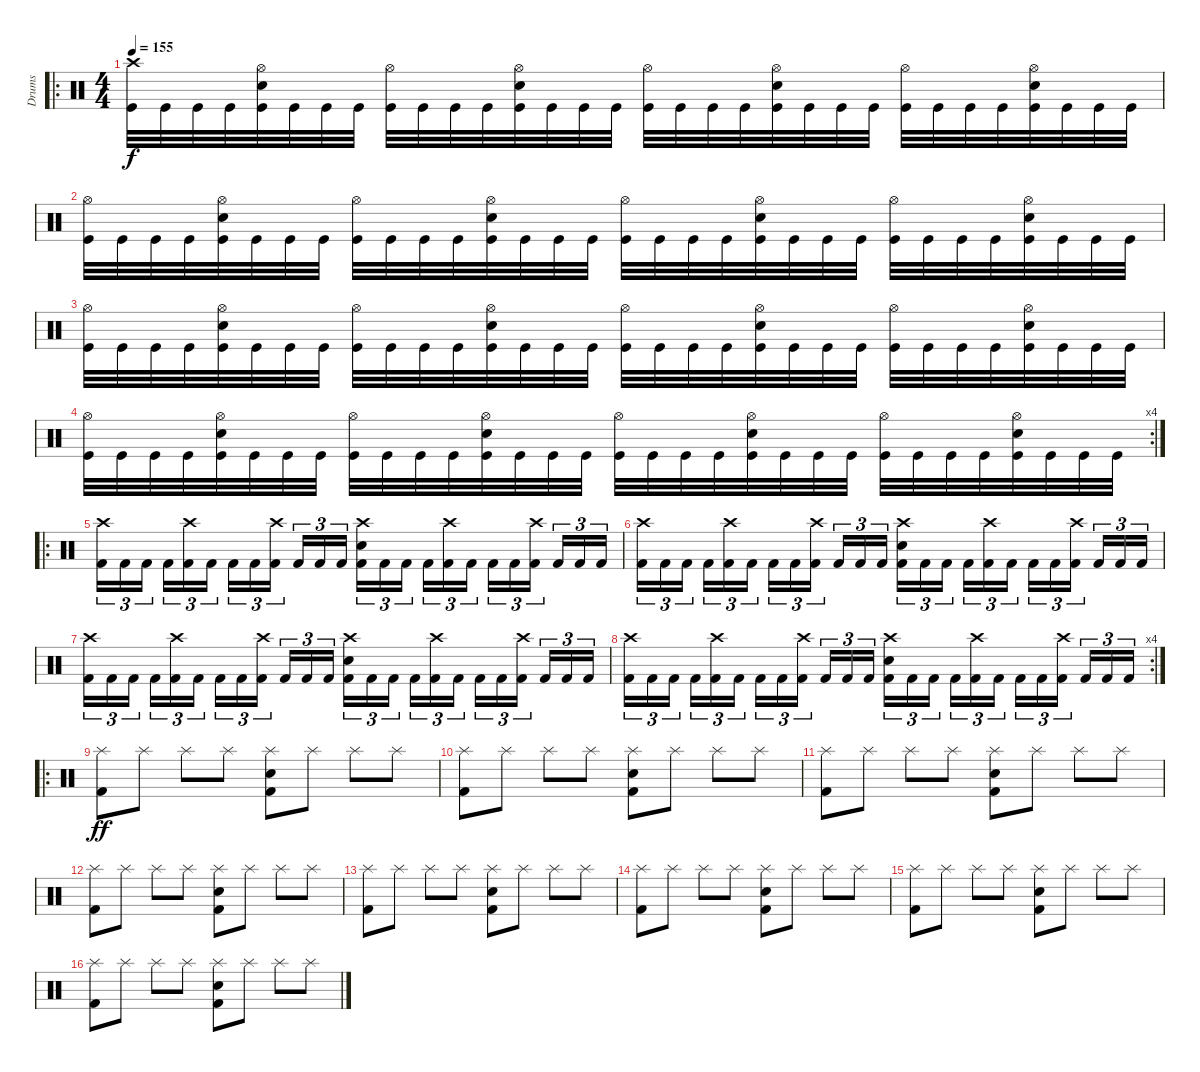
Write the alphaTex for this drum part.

\track ("Drums" "Drums") {instrument percussion}
\staff {score}
\articulation defaults
\ro
\ts (4 4)
\tempo 155
\clef neutral
\ks c
("Kick (hit)" "Crash high (hit)").32{dy f} "Kick (hit)".32 "Kick (hit)".32 "Kick (hit)".32 ("Kick (hit)" "Snare (hit) 2" "Hi-Hat (open)").32 "Kick (hit)".32 "Kick (hit)".32 "Kick (hit)".32 ("Kick (hit)" "Hi-Hat (open)").32 "Kick (hit)".32 "Kick (hit)".32 "Kick (hit)".32 ("Kick (hit)" "Snare (hit) 2" "Hi-Hat (open)").32 "Kick (hit)".32 "Kick (hit)".32 "Kick (hit)".32 ("Kick (hit)" "Hi-Hat (open)").32 "Kick (hit)".32 "Kick (hit)".32 "Kick (hit)".32 ("Kick (hit)" "Snare (hit) 2" "Hi-Hat (open)").32 "Kick (hit)".32 "Kick (hit)".32 "Kick (hit)".32 ("Kick (hit)" "Hi-Hat (open)").32 "Kick (hit)".32 "Kick (hit)".32 "Kick (hit)".32 ("Kick (hit)" "Snare (hit) 2" "Hi-Hat (open)").32 "Kick (hit)".32 "Kick (hit)".32 "Kick (hit)".32 |
("Kick (hit)" "Hi-Hat (open)").32 "Kick (hit)".32 "Kick (hit)".32 "Kick (hit)".32 ("Kick (hit)" "Snare (hit) 2" "Hi-Hat (open)").32 "Kick (hit)".32 "Kick (hit)".32 "Kick (hit)".32 ("Kick (hit)" "Hi-Hat (open)").32 "Kick (hit)".32 "Kick (hit)".32 "Kick (hit)".32 ("Kick (hit)" "Snare (hit) 2" "Hi-Hat (open)").32 "Kick (hit)".32 "Kick (hit)".32 "Kick (hit)".32 ("Kick (hit)" "Hi-Hat (open)").32 "Kick (hit)".32 "Kick (hit)".32 "Kick (hit)".32 ("Kick (hit)" "Snare (hit) 2" "Hi-Hat (open)").32 "Kick (hit)".32 "Kick (hit)".32 "Kick (hit)".32 ("Kick (hit)" "Hi-Hat (open)").32 "Kick (hit)".32 "Kick (hit)".32 "Kick (hit)".32 ("Kick (hit)" "Snare (hit) 2" "Hi-Hat (open)").32 "Kick (hit)".32 "Kick (hit)".32 "Kick (hit)".32 |
("Kick (hit)" "Hi-Hat (open)").32 "Kick (hit)".32 "Kick (hit)".32 "Kick (hit)".32 ("Kick (hit)" "Snare (hit) 2" "Hi-Hat (open)").32 "Kick (hit)".32 "Kick (hit)".32 "Kick (hit)".32 ("Kick (hit)" "Hi-Hat (open)").32 "Kick (hit)".32 "Kick (hit)".32 "Kick (hit)".32 ("Kick (hit)" "Snare (hit) 2" "Hi-Hat (open)").32 "Kick (hit)".32 "Kick (hit)".32 "Kick (hit)".32 ("Kick (hit)" "Hi-Hat (open)").32 "Kick (hit)".32 "Kick (hit)".32 "Kick (hit)".32 ("Kick (hit)" "Snare (hit) 2" "Hi-Hat (open)").32 "Kick (hit)".32 "Kick (hit)".32 "Kick (hit)".32 ("Kick (hit)" "Hi-Hat (open)").32 "Kick (hit)".32 "Kick (hit)".32 "Kick (hit)".32 ("Kick (hit)" "Snare (hit) 2" "Hi-Hat (open)").32 "Kick (hit)".32 "Kick (hit)".32 "Kick (hit)".32 |
\rc 4
("Kick (hit)" "Hi-Hat (open)").32 "Kick (hit)".32 "Kick (hit)".32 "Kick (hit)".32 ("Kick (hit)" "Snare (hit) 2" "Hi-Hat (open)").32 "Kick (hit)".32 "Kick (hit)".32 "Kick (hit)".32 ("Kick (hit)" "Hi-Hat (open)").32 "Kick (hit)".32 "Kick (hit)".32 "Kick (hit)".32 ("Kick (hit)" "Snare (hit) 2" "Hi-Hat (open)").32 "Kick (hit)".32 "Kick (hit)".32 "Kick (hit)".32 ("Kick (hit)" "Hi-Hat (open)").32 "Kick (hit)".32 "Kick (hit)".32 "Kick (hit)".32 ("Kick (hit)" "Snare (hit) 2" "Hi-Hat (open)").32 "Kick (hit)".32 "Kick (hit)".32 "Kick (hit)".32 ("Kick (hit)" "Hi-Hat (open)").32 "Kick (hit)".32 "Kick (hit)".32 "Kick (hit)".32 ("Kick (hit)" "Snare (hit) 2" "Hi-Hat (open)").32 "Kick (hit)".32 "Kick (hit)".32 "Kick (hit)".32 |
\ro
("Crash high (hit)" "Kick (hit) 2").16{tu (3 2)} "Kick (hit) 2".16{tu (3 2)} "Kick (hit) 2".16{tu (3 2)} "Kick (hit) 2".16{tu (3 2)} ("Crash high (hit)" "Kick (hit) 2").16{tu (3 2)} "Kick (hit) 2".16{tu (3 2)} "Kick (hit) 2".16{tu (3 2)} "Kick (hit) 2".16{tu (3 2)} ("Crash high (hit)" "Kick (hit) 2").16{tu (3 2)} "Kick (hit) 2".16{tu (3 2)} "Kick (hit) 2".16{tu (3 2)} "Kick (hit) 2".16{tu (3 2)} ("Crash high (hit)" "Electric Snare (hit)" "Kick (hit) 2").16{tu (3 2)} "Kick (hit) 2".16{tu (3 2)} "Kick (hit) 2".16{tu (3 2)} "Kick (hit) 2".16{tu (3 2)} ("Crash high (hit)" "Kick (hit) 2").16{tu (3 2)} "Kick (hit) 2".16{tu (3 2)} "Kick (hit) 2".16{tu (3 2)} "Kick (hit) 2".16{tu (3 2)} ("Crash high (hit)" "Kick (hit) 2").16{tu (3 2)} "Kick (hit) 2".16{tu (3 2)} "Kick (hit) 2".16{tu (3 2)} "Kick (hit) 2".16{tu (3 2)} |
("Crash high (hit)" "Kick (hit) 2").16{tu (3 2)} "Kick (hit) 2".16{tu (3 2)} "Kick (hit) 2".16{tu (3 2)} "Kick (hit) 2".16{tu (3 2)} ("Crash high (hit)" "Kick (hit) 2").16{tu (3 2)} "Kick (hit) 2".16{tu (3 2)} "Kick (hit) 2".16{tu (3 2)} "Kick (hit) 2".16{tu (3 2)} ("Crash high (hit)" "Kick (hit) 2").16{tu (3 2)} "Kick (hit) 2".16{tu (3 2)} "Kick (hit) 2".16{tu (3 2)} "Kick (hit) 2".16{tu (3 2)} ("Crash high (hit)" "Electric Snare (hit)" "Kick (hit) 2").16{tu (3 2)} "Kick (hit) 2".16{tu (3 2)} "Kick (hit) 2".16{tu (3 2)} "Kick (hit) 2".16{tu (3 2)} ("Crash high (hit)" "Kick (hit) 2").16{tu (3 2)} "Kick (hit) 2".16{tu (3 2)} "Kick (hit) 2".16{tu (3 2)} "Kick (hit) 2".16{tu (3 2)} ("Crash high (hit)" "Kick (hit) 2").16{tu (3 2)} "Kick (hit) 2".16{tu (3 2)} "Kick (hit) 2".16{tu (3 2)} "Kick (hit) 2".16{tu (3 2)} |
("Crash high (hit)" "Kick (hit) 2").16{tu (3 2)} "Kick (hit) 2".16{tu (3 2)} "Kick (hit) 2".16{tu (3 2)} "Kick (hit) 2".16{tu (3 2)} ("Crash high (hit)" "Kick (hit) 2").16{tu (3 2)} "Kick (hit) 2".16{tu (3 2)} "Kick (hit) 2".16{tu (3 2)} "Kick (hit) 2".16{tu (3 2)} ("Crash high (hit)" "Kick (hit) 2").16{tu (3 2)} "Kick (hit) 2".16{tu (3 2)} "Kick (hit) 2".16{tu (3 2)} "Kick (hit) 2".16{tu (3 2)} ("Crash high (hit)" "Electric Snare (hit)" "Kick (hit) 2").16{tu (3 2)} "Kick (hit) 2".16{tu (3 2)} "Kick (hit) 2".16{tu (3 2)} "Kick (hit) 2".16{tu (3 2)} ("Crash high (hit)" "Kick (hit) 2").16{tu (3 2)} "Kick (hit) 2".16{tu (3 2)} "Kick (hit) 2".16{tu (3 2)} "Kick (hit) 2".16{tu (3 2)} ("Crash high (hit)" "Kick (hit) 2").16{tu (3 2)} "Kick (hit) 2".16{tu (3 2)} "Kick (hit) 2".16{tu (3 2)} "Kick (hit) 2".16{tu (3 2)} |
\rc 4
("Crash high (hit)" "Kick (hit) 2").16{tu (3 2)} "Kick (hit) 2".16{tu (3 2)} "Kick (hit) 2".16{tu (3 2)} "Kick (hit) 2".16{tu (3 2)} ("Crash high (hit)" "Kick (hit) 2").16{tu (3 2)} "Kick (hit) 2".16{tu (3 2)} "Kick (hit) 2".16{tu (3 2)} "Kick (hit) 2".16{tu (3 2)} ("Crash high (hit)" "Kick (hit) 2").16{tu (3 2)} "Kick (hit) 2".16{tu (3 2)} "Kick (hit) 2".16{tu (3 2)} "Kick (hit) 2".16{tu (3 2)} ("Crash high (hit)" "Electric Snare (hit)" "Kick (hit) 2").16{tu (3 2)} "Kick (hit) 2".16{tu (3 2)} "Kick (hit) 2".16{tu (3 2)} "Kick (hit) 2".16{tu (3 2)} ("Crash high (hit)" "Kick (hit) 2").16{tu (3 2)} "Kick (hit) 2".16{tu (3 2)} "Kick (hit) 2".16{tu (3 2)} "Kick (hit) 2".16{tu (3 2)} ("Crash high (hit)" "Kick (hit) 2").16{tu (3 2)} "Kick (hit) 2".16{tu (3 2)} "Kick (hit) 2".16{tu (3 2)} "Kick (hit) 2".16{tu (3 2)} |
\ro
("Kick (hit) 2" "Splash (hit)").8{dy ff} "Splash (hit)".8 "Splash (hit)".8 "Splash (hit)".8 ("Kick (hit) 2" "Electric Snare (hit)" "Splash (hit)").8 "Splash (hit)".8 "Splash (hit)".8 "Splash (hit)".8 |
("Kick (hit) 2" "Splash (hit)").8 "Splash (hit)".8 "Splash (hit)".8 "Splash (hit)".8 ("Kick (hit) 2" "Electric Snare (hit)" "Splash (hit)").8 "Splash (hit)".8 "Splash (hit)".8 "Splash (hit)".8 |
("Kick (hit) 2" "Splash (hit)").8 "Splash (hit)".8 "Splash (hit)".8 "Splash (hit)".8 ("Kick (hit) 2" "Electric Snare (hit)" "Splash (hit)").8 "Splash (hit)".8 "Splash (hit)".8 "Splash (hit)".8 |
("Kick (hit) 2" "Splash (hit)").8 "Splash (hit)".8 "Splash (hit)".8 "Splash (hit)".8 ("Kick (hit) 2" "Electric Snare (hit)" "Splash (hit)").8 "Splash (hit)".8 "Splash (hit)".8 "Splash (hit)".8 |
("Kick (hit) 2" "Splash (hit)").8 "Splash (hit)".8 "Splash (hit)".8 "Splash (hit)".8 ("Kick (hit) 2" "Electric Snare (hit)" "Splash (hit)").8 "Splash (hit)".8 "Splash (hit)".8 "Splash (hit)".8 |
("Kick (hit) 2" "Splash (hit)").8 "Splash (hit)".8 "Splash (hit)".8 "Splash (hit)".8 ("Kick (hit) 2" "Electric Snare (hit)" "Splash (hit)").8 "Splash (hit)".8 "Splash (hit)".8 "Splash (hit)".8 |
("Kick (hit) 2" "Splash (hit)").8 "Splash (hit)".8 "Splash (hit)".8 "Splash (hit)".8 ("Kick (hit) 2" "Electric Snare (hit)" "Splash (hit)").8 "Splash (hit)".8 "Splash (hit)".8 "Splash (hit)".8 |
("Kick (hit) 2" "Splash (hit)").8 "Splash (hit)".8 "Splash (hit)".8 "Splash (hit)".8 ("Kick (hit) 2" "Electric Snare (hit)" "Splash (hit)").8 "Splash (hit)".8 "Splash (hit)".8 "Splash (hit)".8
